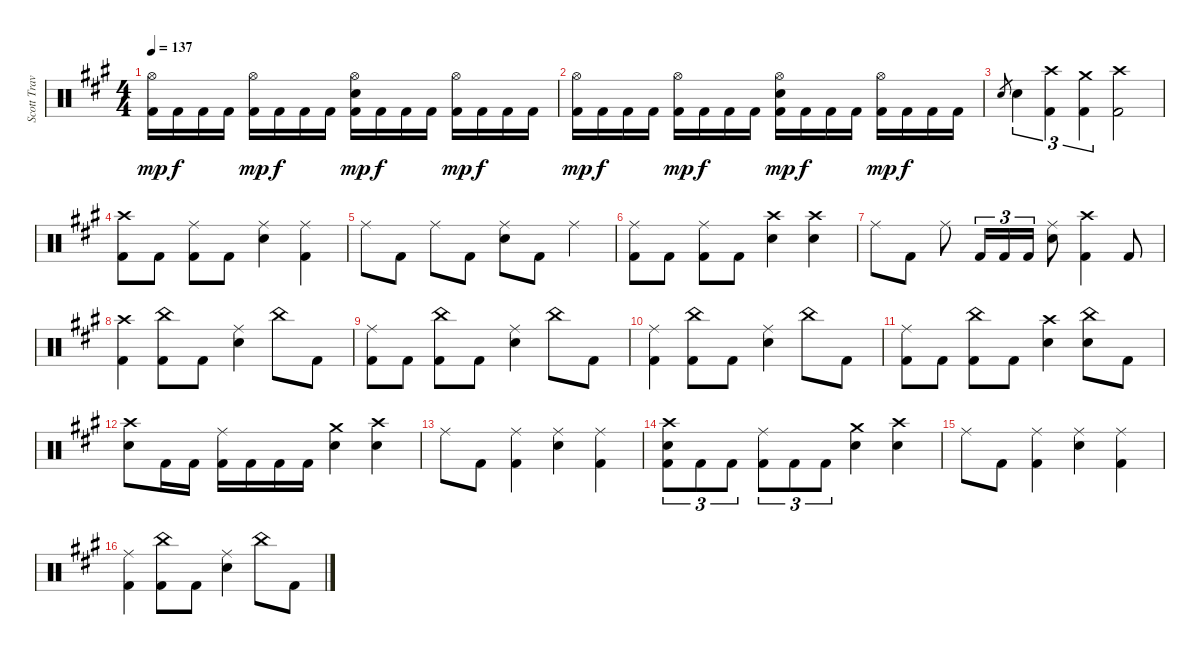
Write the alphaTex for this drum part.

\track ("Scott Travis" "Scott Trav") {instrument percussion}
\staff {score}
\articulation defaults
\ts (4 4)
\tempo 137
\clef neutral
\ks f#minor
("Hi-Hat (open)" "Kick (hit) 2").16{dy mp} "Kick (hit) 2".16{dy f} "Kick (hit) 2".16 "Kick (hit) 2".16 ("Hi-Hat (open)" "Kick (hit) 2").16{dy mp} "Kick (hit) 2".16{dy f} "Kick (hit) 2".16 "Kick (hit) 2".16 ("Hi-Hat (open)" "Snare (hit) 2" "Kick (hit) 2").16{dy mp} "Kick (hit) 2".16{dy f} "Kick (hit) 2".16 "Kick (hit) 2".16 ("Hi-Hat (open)" "Kick (hit) 2").16{dy mp} "Kick (hit) 2".16{dy f} "Kick (hit) 2".16 "Kick (hit) 2".16 |
("Hi-Hat (open)" "Kick (hit) 2").16{dy mp} "Kick (hit) 2".16{dy f} "Kick (hit) 2".16 "Kick (hit) 2".16 ("Hi-Hat (open)" "Kick (hit) 2").16{dy mp} "Kick (hit) 2".16{dy f} "Kick (hit) 2".16 "Kick (hit) 2".16 ("Hi-Hat (open)" "Snare (hit) 2" "Kick (hit) 2").16{dy mp} "Kick (hit) 2".16{dy f} "Kick (hit) 2".16 "Kick (hit) 2".16 ("Hi-Hat (open)" "Kick (hit) 2").16{dy mp} "Kick (hit) 2".16{dy f} "Kick (hit) 2".16 "Kick (hit) 2".16 |
"Snare (hit) 2".8{gr} "Snare (hit) 2".4{tu (3 2)} ("Crash high (hit)" "Kick (hit) 2").4{tu (3 2)} ("Crash medium (hit)" "Kick (hit) 2").4{tu (3 2)} ("Crash high (hit)" "Kick (hit) 2").2 |
("Crash high (hit)" "Kick (hit) 2").8 "Kick (hit) 2".8 ("Ride (middle)" "Kick (hit) 2").8 "Kick (hit) 2".8 ("Ride (middle)" "Snare (hit) 2").4 ("Ride (middle)" "Kick (hit) 2").4 |
"Ride (middle)".8 "Kick (hit) 2".8 "Ride (middle)".8 "Kick (hit) 2".8 ("Ride (middle)" "Snare (hit) 2").8 "Kick (hit) 2".8 "Ride (middle)".4 |
("Ride (middle)" "Kick (hit) 2").8 "Kick (hit) 2".8 ("Ride (middle)" "Kick (hit) 2").8 "Kick (hit) 2".8 ("Crash high (hit)" "Snare (hit) 2").4 ("Crash high (hit)" "Snare (hit) 2").4 |
"Ride (middle)".8 "Kick (hit) 2".8 "Ride (middle)".8 "Kick (hit) 2".16{tu (3 2)} "Kick (hit) 2".16{tu (3 2)} "Kick (hit) 2".16{tu (3 2)} ("Ride (middle)" "Snare (hit) 2").8 ("Crash high (hit)" "Kick (hit) 2").4 "Kick (hit) 2".8 |
("Crash high (hit)" "Kick (hit) 2").4 ("China (hit)" "Kick (hit) 2").8 "Kick (hit) 2".8 ("Ride (middle)" "Snare (hit) 2").4 "China (hit)".8 "Kick (hit) 2".8 |
("Ride (middle)" "Kick (hit) 2").8 "Kick (hit) 2".8 ("China (hit)" "Kick (hit) 2").8 "Kick (hit) 2".8 ("Ride (middle)" "Snare (hit) 2").4 "China (hit)".8 "Kick (hit) 2".8 |
("Ride (middle)" "Kick (hit) 2").4 ("China (hit)" "Kick (hit) 2").8 "Kick (hit) 2".8 ("Ride (middle)" "Snare (hit) 2").4 "China (hit)".8 "Kick (hit) 2".8 |
("Ride (middle)" "Kick (hit) 2").8 "Kick (hit) 2".8 ("China (hit)" "Kick (hit) 2").8 "Kick (hit) 2".8 ("Crash high (hit)" "Snare (hit) 2").4 ("China (hit)" "Snare (hit) 2").8 "Kick (hit) 2".8 |
("Crash high (hit)" "Snare (hit) 2").8 "Kick (hit) 2".16 "Kick (hit) 2".16 ("Ride (middle)" "Kick (hit) 2").16 "Kick (hit) 2".16 "Kick (hit) 2".16 "Kick (hit) 2".16 ("Crash medium (hit)" "Snare (hit) 2").4 ("Crash high (hit)" "Snare (hit) 2").4 |
"Ride (middle)".8 "Kick (hit) 2".8 ("Ride (middle)" "Kick (hit) 2").4 ("Ride (middle)" "Snare (hit) 2").4 ("Ride (middle)" "Kick (hit) 2").4 |
("Crash high (hit)" "Snare (hit) 2" "Kick (hit) 2").8{tu (3 2)} "Kick (hit) 2".8{tu (3 2)} "Kick (hit) 2".8{tu (3 2)} ("Ride (middle)" "Kick (hit) 2").8{tu (3 2)} "Kick (hit) 2".8{tu (3 2)} "Kick (hit) 2".8{tu (3 2)} ("Crash medium (hit)" "Snare (hit) 2").4 ("Crash high (hit)" "Snare (hit) 2").4 |
"Ride (middle)".8 "Kick (hit) 2".8 ("Ride (middle)" "Kick (hit) 2").4 ("Ride (middle)" "Snare (hit) 2").4 ("Ride (middle)" "Kick (hit) 2").4 |
("Ride (middle)" "Kick (hit) 2").4 ("China (hit)" "Kick (hit) 2").8 "Kick (hit) 2".8 ("Ride (middle)" "Snare (hit) 2").4 "China (hit)".8 "Kick (hit) 2".8
